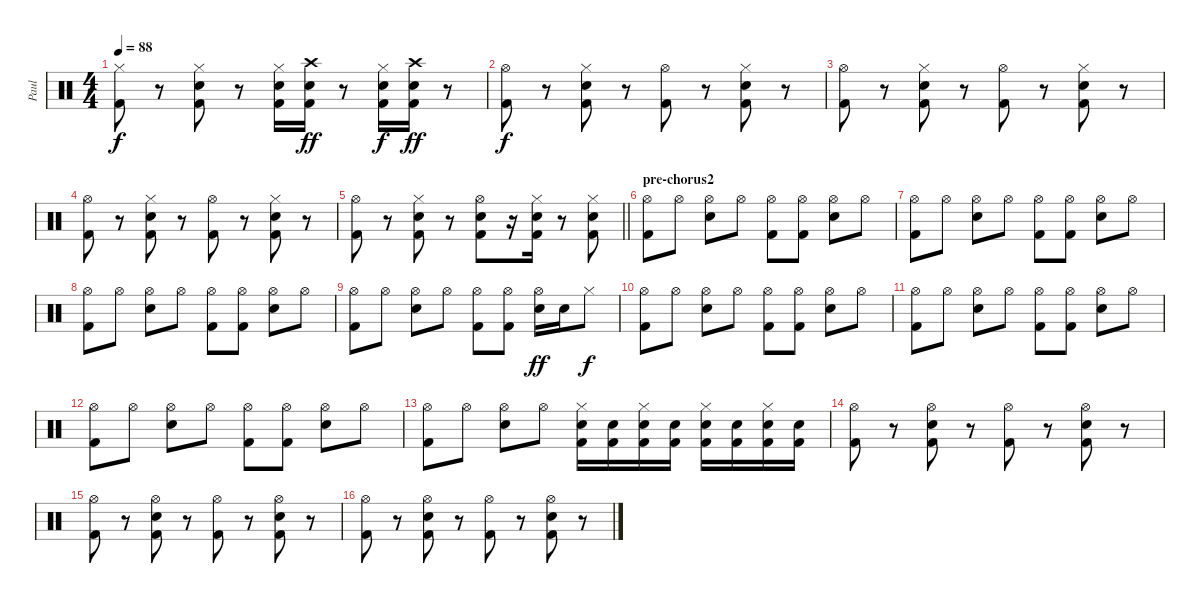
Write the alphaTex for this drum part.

\track ("Paul" "Paul") {instrument percussion}
\staff {score}
\articulation defaults
\ts (4 4)
\tempo 88
\clef neutral
\ks c
("Hi-Hat (closed)" "Kick (hit) 2").8{dy f} r.8 ("Snare (hit) 2" "Hi-Hat (closed)" "Kick (hit) 2").8 r.8 ("Snare (hit) 2" "Hi-Hat (closed)" "Kick (hit) 2").16 ("Snare (hit) 2" "Crash high (hit)" "Kick (hit) 2").16{dy ff} r.8 ("Snare (hit) 2" "Hi-Hat (closed)" "Kick (hit) 2").16{dy f} ("Snare (hit) 2" "Crash high (hit)" "Kick (hit) 2").16{dy ff} r.8 |
("Hi-Hat (open)" "Kick (hit) 2").8{dy f} r.8 ("Snare (hit) 2" "Hi-Hat (closed)" "Kick (hit) 2").8 r.8 ("Hi-Hat (open)" "Kick (hit) 2").8 r.8 ("Snare (hit) 2" "Hi-Hat (closed)" "Kick (hit) 2").8 r.8 |
("Hi-Hat (open)" "Kick (hit) 2").8 r.8 ("Snare (hit) 2" "Hi-Hat (closed)" "Kick (hit) 2").8 r.8 ("Hi-Hat (open)" "Kick (hit) 2").8 r.8 ("Snare (hit) 2" "Hi-Hat (closed)" "Kick (hit) 2").8 r.8 |
("Hi-Hat (open)" "Kick (hit) 2").8 r.8 ("Snare (hit) 2" "Hi-Hat (closed)" "Kick (hit) 2").8 r.8 ("Hi-Hat (open)" "Kick (hit) 2").8 r.8 ("Snare (hit) 2" "Hi-Hat (closed)" "Kick (hit) 2").8 r.8 |
\barLineRight lightlight
("Hi-Hat (open)" "Kick (hit) 2").8 r.8 ("Snare (hit) 2" "Hi-Hat (closed)" "Kick (hit) 2").8 r.8 ("Snare (hit) 2" "Hi-Hat (open)" "Kick (hit) 2").8 r.16 ("Snare (hit) 2" "Hi-Hat (closed)" "Kick (hit) 2").16 r.8 ("Snare (hit) 2" "Hi-Hat (closed)" "Kick (hit) 2").8 |
\section ("" "pre-chorus2")
("Hi-Hat (open)" "Kick (hit) 2").8 "Hi-Hat (open)".8 ("Snare (hit) 2" "Hi-Hat (open)").8 "Hi-Hat (open)".8 ("Hi-Hat (open)" "Kick (hit) 2").8 ("Hi-Hat (open)" "Kick (hit) 2").8 ("Snare (hit) 2" "Hi-Hat (open)").8 "Hi-Hat (open)".8 |
("Hi-Hat (open)" "Kick (hit) 2").8 "Hi-Hat (open)".8 ("Snare (hit) 2" "Hi-Hat (open)").8 "Hi-Hat (open)".8 ("Hi-Hat (open)" "Kick (hit) 2").8 ("Hi-Hat (open)" "Kick (hit) 2").8 ("Snare (hit) 2" "Hi-Hat (open)").8 "Hi-Hat (open)".8 |
("Hi-Hat (open)" "Kick (hit) 2").8 "Hi-Hat (open)".8 ("Snare (hit) 2" "Hi-Hat (open)").8 "Hi-Hat (open)".8 ("Hi-Hat (open)" "Kick (hit) 2").8 ("Hi-Hat (open)" "Kick (hit) 2").8 ("Snare (hit) 2" "Hi-Hat (open)").8 "Hi-Hat (open)".8 |
("Hi-Hat (open)" "Kick (hit) 2").8 "Hi-Hat (open)".8 ("Snare (hit) 2" "Hi-Hat (open)").8 "Hi-Hat (open)".8 ("Hi-Hat (open)" "Kick (hit) 2").8 ("Hi-Hat (open)" "Kick (hit) 2").8 ("Snare (hit) 2" "Hi-Hat (open)").16{dy ff} "Snare (hit) 2".16 "Hi-Hat (closed)".8{dy f} |
("Hi-Hat (open)" "Kick (hit) 2").8 "Hi-Hat (open)".8 ("Snare (hit) 2" "Hi-Hat (open)").8 "Hi-Hat (open)".8 ("Hi-Hat (open)" "Kick (hit) 2").8 ("Hi-Hat (open)" "Kick (hit) 2").8 ("Snare (hit) 2" "Hi-Hat (open)").8 "Hi-Hat (open)".8 |
("Hi-Hat (open)" "Kick (hit) 2").8 "Hi-Hat (open)".8 ("Snare (hit) 2" "Hi-Hat (open)").8 "Hi-Hat (open)".8 ("Hi-Hat (open)" "Kick (hit) 2").8 ("Hi-Hat (open)" "Kick (hit) 2").8 ("Snare (hit) 2" "Hi-Hat (open)").8 "Hi-Hat (open)".8 |
("Hi-Hat (open)" "Kick (hit) 2").8 "Hi-Hat (open)".8 ("Snare (hit) 2" "Hi-Hat (open)").8 "Hi-Hat (open)".8 ("Hi-Hat (open)" "Kick (hit) 2").8 ("Hi-Hat (open)" "Kick (hit) 2").8 ("Snare (hit) 2" "Hi-Hat (open)").8 "Hi-Hat (open)".8 |
("Hi-Hat (open)" "Kick (hit) 2").8 "Hi-Hat (open)".8 ("Snare (hit) 2" "Hi-Hat (open)").8 "Hi-Hat (open)".8 ("Snare (hit) 2" "Hi-Hat (closed)" "Kick (hit) 2").16 ("Snare (hit) 2" "Kick (hit) 2").16 ("Snare (hit) 2" "Hi-Hat (closed)" "Kick (hit) 2").16 ("Snare (hit) 2" "Kick (hit) 2").16 ("Snare (hit) 2" "Hi-Hat (closed)" "Kick (hit) 2").16 ("Snare (hit) 2" "Kick (hit) 2").16 ("Snare (hit) 2" "Hi-Hat (closed)" "Kick (hit) 2").16 ("Snare (hit) 2" "Kick (hit) 2").16 |
("Hi-Hat (open)" "Kick (hit) 2").8 r.8 ("Snare (hit) 2" "Hi-Hat (open)" "Kick (hit) 2").8 r.8 ("Hi-Hat (open)" "Kick (hit) 2").8 r.8 ("Snare (hit) 2" "Hi-Hat (open)" "Kick (hit) 2").8 r.8 |
("Hi-Hat (open)" "Kick (hit) 2").8 r.8 ("Snare (hit) 2" "Hi-Hat (open)" "Kick (hit) 2").8 r.8 ("Hi-Hat (open)" "Kick (hit) 2").8 r.8 ("Snare (hit) 2" "Hi-Hat (open)" "Kick (hit) 2").8 r.8 |
("Hi-Hat (open)" "Kick (hit) 2").8 r.8 ("Snare (hit) 2" "Hi-Hat (open)" "Kick (hit) 2").8 r.8 ("Hi-Hat (open)" "Kick (hit) 2").8 r.8 ("Snare (hit) 2" "Hi-Hat (open)" "Kick (hit) 2").8 r.8
